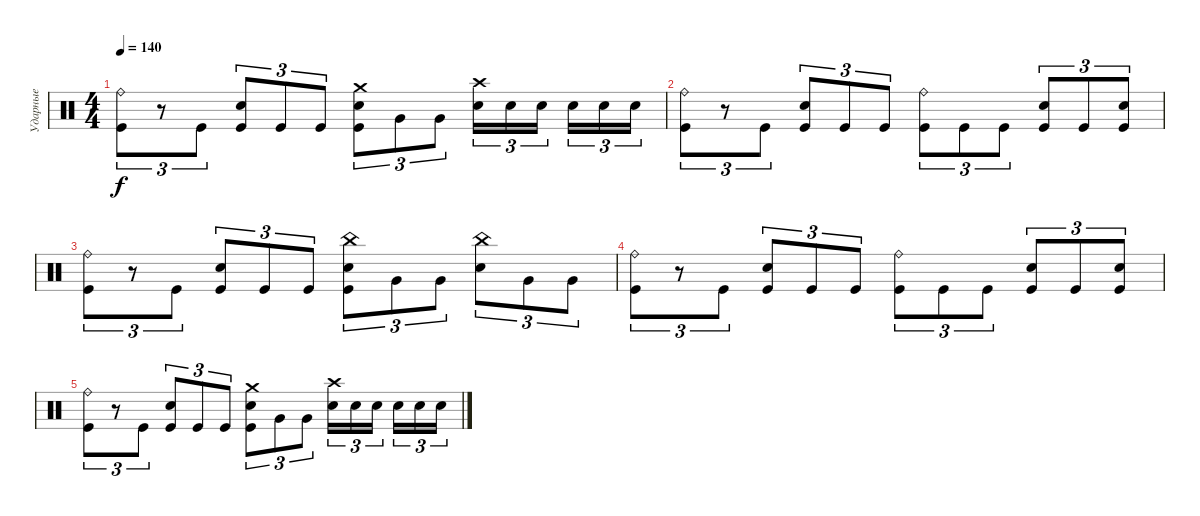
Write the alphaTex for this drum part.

\track ("Ударные" "Ударные") {instrument percussion}
\staff {score}
\articulation defaults
\ts (4 4)
\tempo 140
\clef neutral
\ks c
("Ride (bell)" "Kick (hit)").8{tu (3 2) dy f} r.8{tu (3 2)} "Kick (hit)".8{tu (3 2)} ("Electric Snare (hit)" "Kick (hit)").8{tu (3 2)} "Kick (hit)".8{tu (3 2)} "Kick (hit)".8{tu (3 2)} ("Electric Snare (hit)" "Kick (hit)" "Crash medium (hit)").8{tu (3 2)} "Very Low Tom (hit)".8{tu (3 2)} "Very Low Tom (hit)".8{tu (3 2)} ("Electric Snare (hit)" "Crash high (hit)").16{tu (3 2)} "Electric Snare (hit)".16{tu (3 2)} "Electric Snare (hit)".16{tu (3 2) beam splitsecondary} "Electric Snare (hit)".16{tu (3 2)} "Electric Snare (hit)".16{tu (3 2)} "Electric Snare (hit)".16{tu (3 2)} |
("Ride (bell)" "Kick (hit)").8{tu (3 2)} r.8{tu (3 2)} "Kick (hit)".8{tu (3 2)} ("Electric Snare (hit)" "Kick (hit)").8{tu (3 2)} "Kick (hit)".8{tu (3 2)} "Kick (hit)".8{tu (3 2)} ("Ride (bell)" "Kick (hit)").8{tu (3 2)} "Kick (hit)".8{tu (3 2)} "Kick (hit)".8{tu (3 2)} ("Electric Snare (hit)" "Kick (hit)").8{tu (3 2)} "Kick (hit)".8{tu (3 2)} ("Electric Snare (hit)" "Kick (hit)").8{tu (3 2)} |
("Ride (bell)" "Kick (hit)").8{tu (3 2)} r.8{tu (3 2)} "Kick (hit)".8{tu (3 2)} ("Electric Snare (hit)" "Kick (hit)").8{tu (3 2)} "Kick (hit)".8{tu (3 2)} "Kick (hit)".8{tu (3 2)} ("Electric Snare (hit)" "Kick (hit)" "China (hit)").8{tu (3 2)} "Very Low Tom (hit)".8{tu (3 2)} "Very Low Tom (hit)".8{tu (3 2)} ("Electric Snare (hit)" "China (hit)").8{tu (3 2)} "Very Low Tom (hit)".8{tu (3 2)} "Very Low Tom (hit)".8{tu (3 2)} |
("Ride (bell)" "Kick (hit)").8{tu (3 2)} r.8{tu (3 2)} "Kick (hit)".8{tu (3 2)} ("Electric Snare (hit)" "Kick (hit)").8{tu (3 2)} "Kick (hit)".8{tu (3 2)} "Kick (hit)".8{tu (3 2)} ("Ride (bell)" "Kick (hit)").8{tu (3 2)} "Kick (hit)".8{tu (3 2)} "Kick (hit)".8{tu (3 2)} ("Electric Snare (hit)" "Kick (hit)").8{tu (3 2)} "Kick (hit)".8{tu (3 2)} ("Electric Snare (hit)" "Kick (hit)").8{tu (3 2)} |
("Ride (bell)" "Kick (hit)").8{tu (3 2)} r.8{tu (3 2)} "Kick (hit)".8{tu (3 2)} ("Electric Snare (hit)" "Kick (hit)").8{tu (3 2)} "Kick (hit)".8{tu (3 2)} "Kick (hit)".8{tu (3 2)} ("Electric Snare (hit)" "Kick (hit)" "Crash medium (hit)").8{tu (3 2)} "Very Low Tom (hit)".8{tu (3 2)} "Very Low Tom (hit)".8{tu (3 2)} ("Electric Snare (hit)" "Crash high (hit)").16{tu (3 2)} "Electric Snare (hit)".16{tu (3 2)} "Electric Snare (hit)".16{tu (3 2) beam splitsecondary} "Electric Snare (hit)".16{tu (3 2)} "Electric Snare (hit)".16{tu (3 2)} "Electric Snare (hit)".16{tu (3 2)}
